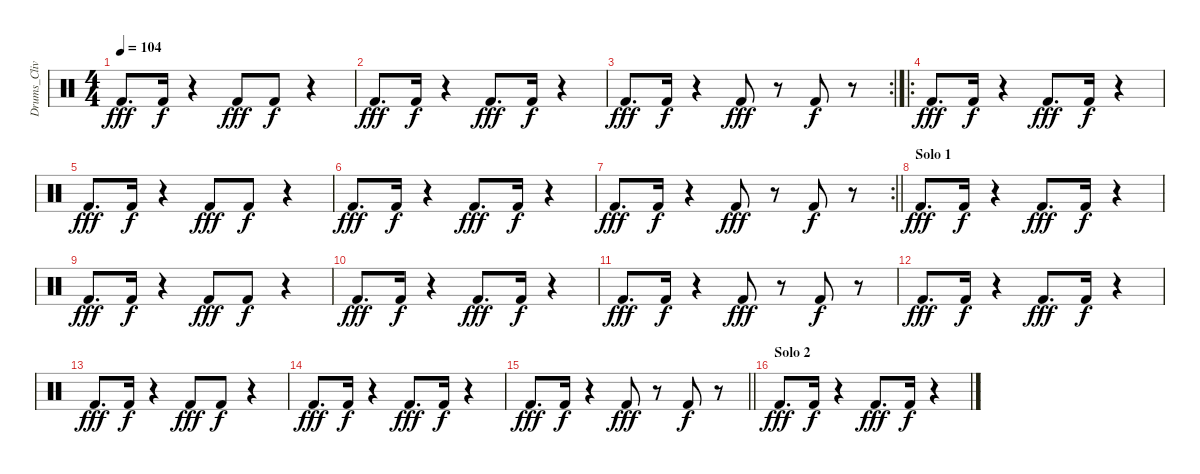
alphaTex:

\track ("Drums_CliveBurr" "Drums_Cliv") {instrument percussion}
\staff {score}
\articulation defaults
\ts (4 4)
\tempo 104
\clef neutral
\ks c "Kick (hit) 2".8{d dy fff} "Kick (hit) 2".16{dy f}
r.4 "Kick (hit) 2".8{dy fff} "Kick (hit) 2".8{dy f} r.4 |
"Kick (hit) 2".8{d dy fff} "Kick (hit) 2".16{dy f} r.4 "Kick (hit) 2".8{d dy fff} "Kick (hit) 2".16{dy f} r.4 |
\rc 2 "Kick (hit) 2".8{d dy fff} "Kick (hit) 2".16{dy f}
r.4 "Kick (hit) 2".8{dy fff} r.8 "Kick (hit) 2".8{dy f} r.8 |
\ro "Kick (hit) 2".8{d dy fff} "Kick (hit) 2".16{dy f}
r.4 "Kick (hit) 2".8{d dy fff} "Kick (hit) 2".16{dy f} r.4 |
"Kick (hit) 2".8{d dy fff} "Kick (hit) 2".16{dy f} r.4 "Kick (hit) 2".8{dy fff} "Kick (hit) 2".8{dy f} r.4 |
"Kick (hit) 2".8{d dy fff} "Kick (hit) 2".16{dy f} r.4 "Kick (hit) 2".8{d dy fff} "Kick (hit) 2".16{dy f} r.4 |
\rc 2
\barLineRight lightlight "Kick (hit) 2".8{d dy fff} "Kick (hit) 2".16{dy f}
r.4 "Kick (hit) 2".8{dy fff} r.8 "Kick (hit) 2".8{dy f} r.8 |
\section ("" "Solo 1")
"Kick (hit) 2".8{d dy fff} "Kick (hit) 2".16{dy f} r.4 "Kick (hit) 2".8{d dy fff} "Kick (hit) 2".16{dy f} r.4 |
"Kick (hit) 2".8{d dy fff} "Kick (hit) 2".16{dy f} r.4 "Kick (hit) 2".8{dy fff} "Kick (hit) 2".8{dy f} r.4 |
"Kick (hit) 2".8{d dy fff} "Kick (hit) 2".16{dy f} r.4 "Kick (hit) 2".8{d dy fff} "Kick (hit) 2".16{dy f} r.4 |
"Kick (hit) 2".8{d dy fff} "Kick (hit) 2".16{dy f} r.4 "Kick (hit) 2".8{dy fff} r.8 "Kick (hit) 2".8{dy f} r.8 |
"Kick (hit) 2".8{d dy fff} "Kick (hit) 2".16{dy f} r.4 "Kick (hit) 2".8{d dy fff} "Kick (hit) 2".16{dy f} r.4 |
"Kick (hit) 2".8{d dy fff} "Kick (hit) 2".16{dy f} r.4 "Kick (hit) 2".8{dy fff} "Kick (hit) 2".8{dy f} r.4 |
"Kick (hit) 2".8{d dy fff} "Kick (hit) 2".16{dy f} r.4 "Kick (hit) 2".8{d dy fff} "Kick (hit) 2".16{dy f} r.4 |
\barLineRight lightlight "Kick (hit) 2".8{d dy fff} "Kick (hit) 2".16{dy f}
r.4 "Kick (hit) 2".8{dy fff} r.8 "Kick (hit) 2".8{dy f} r.8 |
\section ("" "Solo 2")
"Kick (hit) 2".8{d dy fff} "Kick (hit) 2".16{dy f} r.4 "Kick (hit) 2".8{d dy fff} "Kick (hit) 2".16{dy f} r.4
